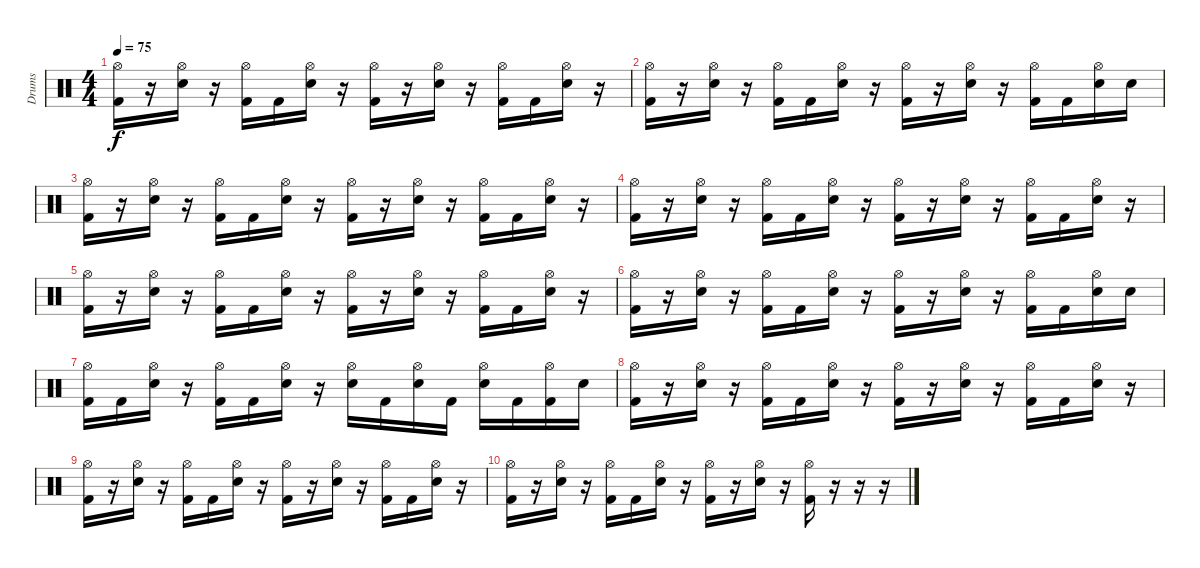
\track ("Drums" "Drums") {instrument percussion}
\staff {score}
\articulation defaults
\ts (4 4)
\tempo 75
\clef neutral
\ks c
("Kick (hit) 2" "Hi-Hat (open)").16{dy f} r.16 ("Electric Snare (hit)" "Hi-Hat (open)").16 r.16 ("Kick (hit) 2" "Hi-Hat (open)").16 "Kick (hit) 2".16 ("Electric Snare (hit)" "Hi-Hat (open)").16 r.16 ("Kick (hit) 2" "Hi-Hat (open)").16 r.16 ("Electric Snare (hit)" "Hi-Hat (open)").16 r.16 ("Kick (hit) 2" "Hi-Hat (open)").16 "Kick (hit) 2".16 ("Electric Snare (hit)" "Hi-Hat (open)").16 r.16 |
("Kick (hit) 2" "Hi-Hat (open)").16 r.16 ("Electric Snare (hit)" "Hi-Hat (open)").16 r.16 ("Kick (hit) 2" "Hi-Hat (open)").16 "Kick (hit) 2".16 ("Electric Snare (hit)" "Hi-Hat (open)").16 r.16 ("Kick (hit) 2" "Hi-Hat (open)").16 r.16 ("Electric Snare (hit)" "Hi-Hat (open)").16 r.16 ("Kick (hit) 2" "Hi-Hat (open)").16 "Kick (hit) 2".16 ("Electric Snare (hit)" "Hi-Hat (open)").16 "Electric Snare (hit)".16 |
("Kick (hit) 2" "Hi-Hat (open)").16 r.16 ("Electric Snare (hit)" "Hi-Hat (open)").16 r.16 ("Kick (hit) 2" "Hi-Hat (open)").16 "Kick (hit) 2".16 ("Electric Snare (hit)" "Hi-Hat (open)").16 r.16 ("Kick (hit) 2" "Hi-Hat (open)").16 r.16 ("Electric Snare (hit)" "Hi-Hat (open)").16 r.16 ("Kick (hit) 2" "Hi-Hat (open)").16 "Kick (hit) 2".16 ("Electric Snare (hit)" "Hi-Hat (open)").16 r.16 |
("Kick (hit) 2" "Hi-Hat (open)").16 r.16 ("Electric Snare (hit)" "Hi-Hat (open)").16 r.16 ("Kick (hit) 2" "Hi-Hat (open)").16 "Kick (hit) 2".16 ("Electric Snare (hit)" "Hi-Hat (open)").16 r.16 ("Kick (hit) 2" "Hi-Hat (open)").16 r.16 ("Electric Snare (hit)" "Hi-Hat (open)").16 r.16 ("Kick (hit) 2" "Hi-Hat (open)").16 "Kick (hit) 2".16 ("Electric Snare (hit)" "Hi-Hat (open)").16 r.16 |
("Kick (hit) 2" "Hi-Hat (open)").16 r.16 ("Electric Snare (hit)" "Hi-Hat (open)").16 r.16 ("Kick (hit) 2" "Hi-Hat (open)").16 "Kick (hit) 2".16 ("Electric Snare (hit)" "Hi-Hat (open)").16 r.16 ("Kick (hit) 2" "Hi-Hat (open)").16 r.16 ("Electric Snare (hit)" "Hi-Hat (open)").16 r.16 ("Kick (hit) 2" "Hi-Hat (open)").16 "Kick (hit) 2".16 ("Electric Snare (hit)" "Hi-Hat (open)").16 r.16 |
("Kick (hit) 2" "Hi-Hat (open)").16 r.16 ("Electric Snare (hit)" "Hi-Hat (open)").16 r.16 ("Kick (hit) 2" "Hi-Hat (open)").16 "Kick (hit) 2".16 ("Electric Snare (hit)" "Hi-Hat (open)").16 r.16 ("Kick (hit) 2" "Hi-Hat (open)").16 r.16 ("Electric Snare (hit)" "Hi-Hat (open)").16 r.16 ("Kick (hit) 2" "Hi-Hat (open)").16 "Kick (hit) 2".16 ("Electric Snare (hit)" "Hi-Hat (open)").16 "Electric Snare (hit)".16 |
("Kick (hit) 2" "Hi-Hat (open)").16 "Kick (hit) 2".16 ("Electric Snare (hit)" "Hi-Hat (open)").16 r.16 ("Kick (hit) 2" "Hi-Hat (open)").16 "Kick (hit) 2".16 ("Electric Snare (hit)" "Hi-Hat (open)").16 r.16 ("Electric Snare (hit)" "Hi-Hat (open)").16 "Kick (hit) 2".16 ("Electric Snare (hit)" "Hi-Hat (open)").16 "Kick (hit) 2".16 ("Electric Snare (hit)" "Hi-Hat (open)").16 "Kick (hit) 2".16 ("Kick (hit) 2" "Hi-Hat (open)").16 "Electric Snare (hit)".16 |
("Kick (hit) 2" "Hi-Hat (open)").16 r.16 ("Electric Snare (hit)" "Hi-Hat (open)").16 r.16 ("Kick (hit) 2" "Hi-Hat (open)").16 "Kick (hit) 2".16 ("Electric Snare (hit)" "Hi-Hat (open)").16 r.16 ("Kick (hit) 2" "Hi-Hat (open)").16 r.16 ("Electric Snare (hit)" "Hi-Hat (open)").16 r.16 ("Kick (hit) 2" "Hi-Hat (open)").16 "Kick (hit) 2".16 ("Electric Snare (hit)" "Hi-Hat (open)").16 r.16 |
("Kick (hit) 2" "Hi-Hat (open)").16 r.16 ("Electric Snare (hit)" "Hi-Hat (open)").16 r.16 ("Kick (hit) 2" "Hi-Hat (open)").16 "Kick (hit) 2".16 ("Electric Snare (hit)" "Hi-Hat (open)").16 r.16 ("Kick (hit) 2" "Hi-Hat (open)").16 r.16 ("Electric Snare (hit)" "Hi-Hat (open)").16 r.16 ("Kick (hit) 2" "Hi-Hat (open)").16 "Kick (hit) 2".16 ("Electric Snare (hit)" "Hi-Hat (open)").16 r.16 |
("Kick (hit) 2" "Hi-Hat (open)").16 r.16 ("Electric Snare (hit)" "Hi-Hat (open)").16 r.16 ("Kick (hit) 2" "Hi-Hat (open)").16 "Kick (hit) 2".16 ("Electric Snare (hit)" "Hi-Hat (open)").16 r.16 ("Kick (hit) 2" "Hi-Hat (open)").16 r.16 ("Electric Snare (hit)" "Hi-Hat (open)").16 r.16 ("Kick (hit) 2" "Hi-Hat (open)").16 r.16 r.16 r.16
